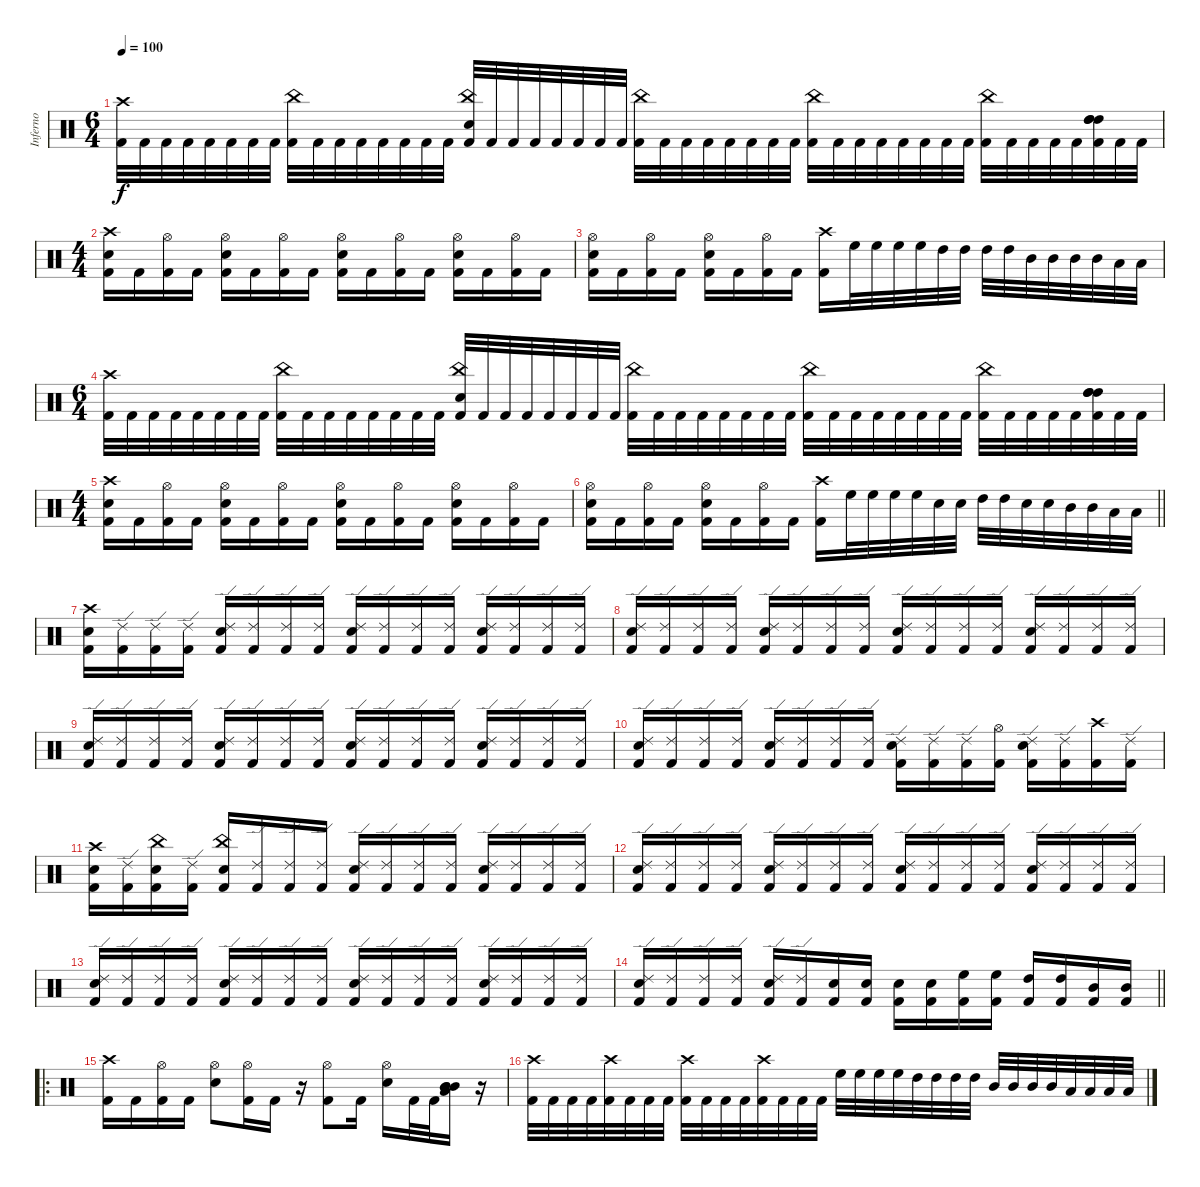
\track ("Inferno" "Inferno") {instrument percussion}
\staff {score}
\articulation defaults
\ts (6 4)
\section ("" "")
\tempo 100
\clef neutral
\ks c
("Crash high (hit)" "Kick (hit) 2").32{dy f} "Kick (hit) 2".32 "Kick (hit) 2".32 "Kick (hit) 2".32 "Kick (hit) 2".32 "Kick (hit) 2".32 "Kick (hit) 2".32 "Kick (hit) 2".32 ("China (hit)" "Kick (hit) 2").32 "Kick (hit) 2".32 "Kick (hit) 2".32 "Kick (hit) 2".32 "Kick (hit) 2".32 "Kick (hit) 2".32 "Kick (hit) 2".32 "Kick (hit) 2".32 ("China (hit)" "Electric Snare (hit)" "Kick (hit) 2").32 "Kick (hit) 2".32 "Kick (hit) 2".32 "Kick (hit) 2".32 "Kick (hit) 2".32 "Kick (hit) 2".32 "Kick (hit) 2".32 "Kick (hit) 2".32 ("China (hit)" "Kick (hit) 2").32 "Kick (hit) 2".32 "Kick (hit) 2".32 "Kick (hit) 2".32 "Kick (hit) 2".32 "Kick (hit) 2".32 "Kick (hit) 2".32 "Kick (hit) 2".32 ("China (hit)" "Kick (hit) 2").32 "Kick (hit) 2".32 "Kick (hit) 2".32 "Kick (hit) 2".32 "Kick (hit) 2".32 "Kick (hit) 2".32 "Kick (hit) 2".32 "Kick (hit) 2".32 ("China (hit)" "Kick (hit) 2").32 "Kick (hit) 2".32 "Kick (hit) 2".32 "Kick (hit) 2".32 "Kick (hit) 2".32 ("High Tom (hit)" "High Tom (hit)" "High Tom (hit)" "Kick (hit) 2").32 "Kick (hit) 2".32 "Kick (hit) 2".32 |
\ts (4 4)
("Crash high (hit)" "Electric Snare (hit)" "Kick (hit) 2").16 "Kick (hit) 2".16 ("Hi-Hat (open)" "Kick (hit) 2").16 "Kick (hit) 2".16 ("Hi-Hat (open)" "Electric Snare (hit)" "Kick (hit) 2").16 "Kick (hit) 2".16 ("Hi-Hat (open)" "Kick (hit) 2").16 "Kick (hit) 2".16 ("Hi-Hat (open)" "Electric Snare (hit)" "Kick (hit) 2").16 "Kick (hit) 2".16 ("Hi-Hat (open)" "Kick (hit) 2").16 "Kick (hit) 2".16 ("Hi-Hat (open)" "Electric Snare (hit)" "Kick (hit) 2").16 "Kick (hit) 2".16 ("Hi-Hat (open)" "Kick (hit) 2").16 "Kick (hit) 2".16 |
("Hi-Hat (open)" "Electric Snare (hit)" "Kick (hit) 2").16 "Kick (hit) 2".16 ("Hi-Hat (open)" "Kick (hit) 2").16 "Kick (hit) 2".16 ("Hi-Hat (open)" "Electric Snare (hit)" "Kick (hit) 2").16 "Kick (hit) 2".16 ("Hi-Hat (open)" "Kick (hit) 2").16 "Kick (hit) 2".16 ("Crash high (hit)" "Kick (hit) 2").16 "High Floor Tom (hit)".32 "High Floor Tom (hit)".32 "High Floor Tom (hit)".32 "High Floor Tom (hit)".32 "High Tom (hit)".32 "High Tom (hit)".32 "High Tom (hit)".32 "High Tom (hit)".32 "Mid Tom (hit)".32 "Mid Tom (hit)".32 "Mid Tom (hit)".32 "Mid Tom (hit)".32 "Low Tom (hit)".32 "Low Tom (hit)".32 |
\ts (6 4)
("Crash high (hit)" "Kick (hit) 2").32 "Kick (hit) 2".32 "Kick (hit) 2".32 "Kick (hit) 2".32 "Kick (hit) 2".32 "Kick (hit) 2".32 "Kick (hit) 2".32 "Kick (hit) 2".32 ("China (hit)" "Kick (hit) 2").32 "Kick (hit) 2".32 "Kick (hit) 2".32 "Kick (hit) 2".32 "Kick (hit) 2".32 "Kick (hit) 2".32 "Kick (hit) 2".32 "Kick (hit) 2".32 ("China (hit)" "Electric Snare (hit)" "Kick (hit) 2").32 "Kick (hit) 2".32 "Kick (hit) 2".32 "Kick (hit) 2".32 "Kick (hit) 2".32 "Kick (hit) 2".32 "Kick (hit) 2".32 "Kick (hit) 2".32 ("China (hit)" "Kick (hit) 2").32 "Kick (hit) 2".32 "Kick (hit) 2".32 "Kick (hit) 2".32 "Kick (hit) 2".32 "Kick (hit) 2".32 "Kick (hit) 2".32 "Kick (hit) 2".32 ("China (hit)" "Kick (hit) 2").32 "Kick (hit) 2".32 "Kick (hit) 2".32 "Kick (hit) 2".32 "Kick (hit) 2".32 "Kick (hit) 2".32 "Kick (hit) 2".32 "Kick (hit) 2".32 ("China (hit)" "Kick (hit) 2").32 "Kick (hit) 2".32 "Kick (hit) 2".32 "Kick (hit) 2".32 "Kick (hit) 2".32 ("High Tom (hit)" "High Tom (hit)" "High Tom (hit)" "Kick (hit) 2").32 "Kick (hit) 2".32 "Kick (hit) 2".32 |
\ts (4 4)
("Crash high (hit)" "Electric Snare (hit)" "Kick (hit) 2").16 "Kick (hit) 2".16 ("Hi-Hat (open)" "Kick (hit) 2").16 "Kick (hit) 2".16 ("Hi-Hat (open)" "Electric Snare (hit)" "Kick (hit) 2").16 "Kick (hit) 2".16 ("Hi-Hat (open)" "Kick (hit) 2").16 "Kick (hit) 2".16 ("Hi-Hat (open)" "Electric Snare (hit)" "Kick (hit) 2").16 "Kick (hit) 2".16 ("Hi-Hat (open)" "Kick (hit) 2").16 "Kick (hit) 2".16 ("Hi-Hat (open)" "Electric Snare (hit)" "Kick (hit) 2").16 "Kick (hit) 2".16 ("Hi-Hat (open)" "Kick (hit) 2").16 "Kick (hit) 2".16 |
\barLineRight lightlight
("Hi-Hat (open)" "Electric Snare (hit)" "Kick (hit) 2").16 "Kick (hit) 2".16 ("Hi-Hat (open)" "Kick (hit) 2").16 "Kick (hit) 2".16 ("Hi-Hat (open)" "Electric Snare (hit)" "Kick (hit) 2").16 "Kick (hit) 2".16 ("Hi-Hat (open)" "Kick (hit) 2").16 "Kick (hit) 2".16 ("Crash high (hit)" "Kick (hit) 2").16 "High Floor Tom (hit)".32 "High Floor Tom (hit)".32 "High Floor Tom (hit)".32 "High Floor Tom (hit)".32 "Electric Snare (hit)".32 "Electric Snare (hit)".32 "High Tom (hit)".32 "High Tom (hit)".32 "Electric Snare (hit)".32 "Electric Snare (hit)".32 "Mid Tom (hit)".32 "Mid Tom (hit)".32 "Low Tom (hit)".32 "Low Tom (hit)".32 |
\section ("" "")
("Crash high (hit)" "Electric Snare (hit)" "Kick (hit) 2").16 ("Ride (edge) 2" "Kick (hit) 2").16 ("Ride (edge) 2" "Kick (hit) 2").16 ("Ride (edge) 2" "Kick (hit) 2").16 ("Ride (edge) 2" "Electric Snare (hit)" "Kick (hit) 2").16 ("Ride (edge) 2" "Kick (hit) 2").16 ("Ride (edge) 2" "Kick (hit) 2").16 ("Ride (edge) 2" "Kick (hit) 2").16 ("Ride (edge) 2" "Electric Snare (hit)" "Kick (hit) 2").16 ("Ride (edge) 2" "Kick (hit) 2").16 ("Ride (edge) 2" "Kick (hit) 2").16 ("Ride (edge) 2" "Kick (hit) 2").16 ("Ride (edge) 2" "Electric Snare (hit)" "Kick (hit) 2").16 ("Ride (edge) 2" "Kick (hit) 2").16 ("Ride (edge) 2" "Kick (hit) 2").16 ("Ride (edge) 2" "Kick (hit) 2").16 |
("Ride (edge) 2" "Electric Snare (hit)" "Kick (hit) 2").16 ("Ride (edge) 2" "Kick (hit) 2").16 ("Ride (edge) 2" "Kick (hit) 2").16 ("Ride (edge) 2" "Kick (hit) 2").16 ("Ride (edge) 2" "Electric Snare (hit)" "Kick (hit) 2").16 ("Ride (edge) 2" "Kick (hit) 2").16 ("Ride (edge) 2" "Kick (hit) 2").16 ("Ride (edge) 2" "Kick (hit) 2").16 ("Ride (edge) 2" "Electric Snare (hit)" "Kick (hit) 2").16 ("Ride (edge) 2" "Kick (hit) 2").16 ("Ride (edge) 2" "Kick (hit) 2").16 ("Ride (edge) 2" "Kick (hit) 2").16 ("Ride (edge) 2" "Electric Snare (hit)" "Kick (hit) 2").16 ("Ride (edge) 2" "Kick (hit) 2").16 ("Ride (edge) 2" "Kick (hit) 2").16 ("Ride (edge) 2" "Kick (hit) 2").16 |
("Ride (edge) 2" "Electric Snare (hit)" "Kick (hit) 2").16 ("Ride (edge) 2" "Kick (hit) 2").16 ("Ride (edge) 2" "Kick (hit) 2").16 ("Ride (edge) 2" "Kick (hit) 2").16 ("Ride (edge) 2" "Electric Snare (hit)" "Kick (hit) 2").16 ("Ride (edge) 2" "Kick (hit) 2").16 ("Ride (edge) 2" "Kick (hit) 2").16 ("Ride (edge) 2" "Kick (hit) 2").16 ("Ride (edge) 2" "Electric Snare (hit)" "Kick (hit) 2").16 ("Ride (edge) 2" "Kick (hit) 2").16 ("Ride (edge) 2" "Kick (hit) 2").16 ("Ride (edge) 2" "Kick (hit) 2").16 ("Ride (edge) 2" "Electric Snare (hit)" "Kick (hit) 2").16 ("Ride (edge) 2" "Kick (hit) 2").16 ("Ride (edge) 2" "Kick (hit) 2").16 ("Ride (edge) 2" "Kick (hit) 2").16 |
("Ride (edge) 2" "Electric Snare (hit)" "Kick (hit) 2").16 ("Ride (edge) 2" "Kick (hit) 2").16 ("Ride (edge) 2" "Kick (hit) 2").16 ("Ride (edge) 2" "Kick (hit) 2").16 ("Ride (edge) 2" "Electric Snare (hit)" "Kick (hit) 2").16 ("Ride (edge) 2" "Kick (hit) 2").16 ("Ride (edge) 2" "Kick (hit) 2").16 ("Ride (edge) 2" "Kick (hit) 2").16 ("Ride (edge) 2" "Electric Snare (hit)" "Kick (hit) 2").16 ("Ride (edge) 2" "Kick (hit) 2").16 ("Ride (edge) 2" "Kick (hit) 2").16 ("Hi-Hat (open)" "Kick (hit) 2").16 ("Ride (edge) 2" "Electric Snare (hit)" "Kick (hit) 2").16 ("Ride (edge) 2" "Kick (hit) 2").16 ("Crash high (hit)" "Kick (hit) 2").16 ("Ride (edge) 2" "Kick (hit) 2").16 |
("Crash high (hit)" "Electric Snare (hit)" "Kick (hit) 2").16 ("Ride (edge) 2" "Kick (hit) 2").16 ("China (hit)" "Electric Snare (hit)" "Kick (hit) 2").16 ("Ride (edge) 2" "Kick (hit) 2").16 ("China (hit)" "Electric Snare (hit)" "Kick (hit) 2").16 ("Ride (edge) 2" "Kick (hit) 2").16 ("Ride (edge) 2" "Kick (hit) 2").16 ("Ride (edge) 2" "Kick (hit) 2").16 ("Ride (edge) 2" "Electric Snare (hit)" "Kick (hit) 2").16 ("Ride (edge) 2" "Kick (hit) 2").16 ("Ride (edge) 2" "Kick (hit) 2").16 ("Ride (edge) 2" "Kick (hit) 2").16 ("Ride (edge) 2" "Electric Snare (hit)" "Kick (hit) 2").16 ("Ride (edge) 2" "Kick (hit) 2").16 ("Ride (edge) 2" "Kick (hit) 2").16 ("Ride (edge) 2" "Kick (hit) 2").16 |
("Ride (edge) 2" "Electric Snare (hit)" "Kick (hit) 2").16 ("Ride (edge) 2" "Kick (hit) 2").16 ("Ride (edge) 2" "Kick (hit) 2").16 ("Ride (edge) 2" "Kick (hit) 2").16 ("Ride (edge) 2" "Electric Snare (hit)" "Kick (hit) 2").16 ("Ride (edge) 2" "Kick (hit) 2").16 ("Ride (edge) 2" "Kick (hit) 2").16 ("Ride (edge) 2" "Kick (hit) 2").16 ("Ride (edge) 2" "Electric Snare (hit)" "Kick (hit) 2").16 ("Ride (edge) 2" "Kick (hit) 2").16 ("Ride (edge) 2" "Kick (hit) 2").16 ("Ride (edge) 2" "Kick (hit) 2").16 ("Ride (edge) 2" "Electric Snare (hit)" "Kick (hit) 2").16 ("Ride (edge) 2" "Kick (hit) 2").16 ("Ride (edge) 2" "Kick (hit) 2").16 ("Ride (edge) 2" "Kick (hit) 2").16 |
("Ride (edge) 2" "Electric Snare (hit)" "Kick (hit) 2").16 ("Ride (edge) 2" "Kick (hit) 2").16 ("Ride (edge) 2" "Kick (hit) 2").16 ("Ride (edge) 2" "Kick (hit) 2").16 ("Ride (edge) 2" "Electric Snare (hit)" "Kick (hit) 2").16 ("Ride (edge) 2" "Kick (hit) 2").16 ("Ride (edge) 2" "Kick (hit) 2").16 ("Ride (edge) 2" "Kick (hit) 2").16 ("Ride (edge) 2" "Electric Snare (hit)" "Kick (hit) 2").16 ("Ride (edge) 2" "Kick (hit) 2").16 ("Ride (edge) 2" "Kick (hit) 2").16 ("Ride (edge) 2" "Kick (hit) 2").16 ("Ride (edge) 2" "Electric Snare (hit)" "Kick (hit) 2").16 ("Ride (edge) 2" "Kick (hit) 2").16 ("Ride (edge) 2" "Kick (hit) 2").16 ("Ride (edge) 2" "Kick (hit) 2").16 |
\barLineRight lightlight
("Ride (edge) 2" "Electric Snare (hit)" "Kick (hit) 2").16 ("Ride (edge) 2" "Kick (hit) 2").16 ("Ride (edge) 2" "Kick (hit) 2").16 ("Ride (edge) 2" "Kick (hit) 2").16 ("Ride (edge) 2" "Electric Snare (hit)" "Kick (hit) 2").16 ("Ride (edge) 2" "Kick (hit) 2").16 ("Electric Snare (hit)" "Kick (hit) 2").16 ("Electric Snare (hit)" "Kick (hit) 2").16 ("Electric Snare (hit)" "Kick (hit) 2").16 ("Electric Snare (hit)" "Kick (hit) 2").16 ("High Floor Tom (hit)" "Kick (hit) 2").16 ("High Floor Tom (hit)" "Kick (hit) 2").16 ("High Tom (hit)" "Kick (hit) 2").16 ("High Tom (hit)" "Kick (hit) 2").16 ("Mid Tom (hit)" "Kick (hit) 2").16 ("Mid Tom (hit)" "Kick (hit) 2").16 |
\ro
\section ("" "")
("Crash high (hit)" "Kick (hit) 2").16 "Kick (hit) 2".16 ("Hi-Hat (open)" "Kick (hit) 2").16 "Kick (hit) 2".16 ("Hi-Hat (open)" "Electric Snare (hit)").8 ("Hi-Hat (open)" "Kick (hit) 2").16 "Kick (hit) 2".16 r.16 ("Hi-Hat (open)" "Kick (hit) 2").8 "Kick (hit) 2".16 ("Hi-Hat (open)" "Electric Snare (hit)").16 "Kick (hit) 2".32 "Kick (hit) 2".32 ("Mid Tom (hit)" "Mid Tom (hit)" "Mid Tom (hit)" "Low Tom (hit)").16 r.16 |
("Crash high (hit)" "Kick (hit) 2").32 "Kick (hit) 2".32 "Kick (hit) 2".32 "Kick (hit) 2".32 ("Crash high (hit)" "Kick (hit) 2").32 "Kick (hit) 2".32 "Kick (hit) 2".32 "Kick (hit) 2".32 ("Crash high (hit)" "Kick (hit) 2").32 "Kick (hit) 2".32 "Kick (hit) 2".32 "Kick (hit) 2".32 ("Crash high (hit)" "Kick (hit) 2").32 "Kick (hit) 2".32 "Kick (hit) 2".32 "Kick (hit) 2".32 "High Floor Tom (hit)".32 "High Floor Tom (hit)".32 "High Floor Tom (hit)".32 "High Floor Tom (hit)".32 "High Tom (hit)".32 "High Tom (hit)".32 "High Tom (hit)".32 "High Tom (hit)".32 "Mid Tom (hit)".32 "Mid Tom (hit)".32 "Mid Tom (hit)".32 "Mid Tom (hit)".32 "Low Tom (hit)".32 "Low Tom (hit)".32 "Low Tom (hit)".32 "Low Tom (hit)".32
